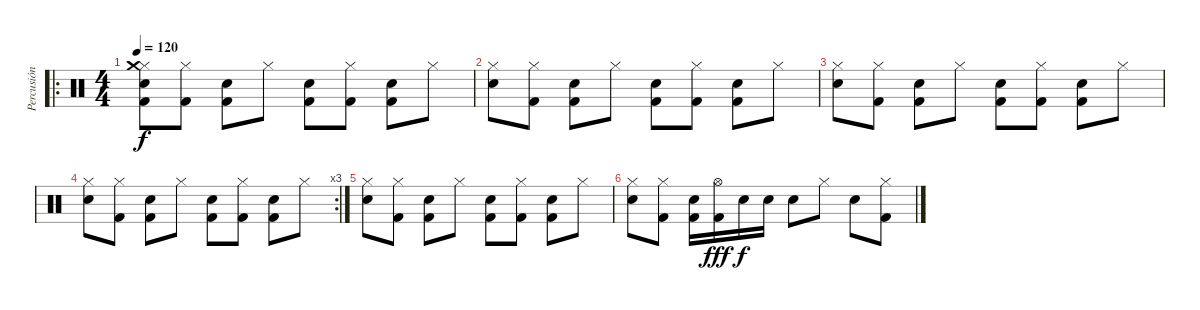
\track ("Percusión" "Percusión") {instrument percussion}
\staff {score}
\articulation defaults
\ro
\ts (4 4)
\tempo 120
\clef neutral
\ks c
("Electric Snare (hit)" "Hi-Hat (closed)" "Crash medium (hit)" "Kick (hit) 2").8{dy f} ("Hi-Hat (closed)" "Kick (hit) 2").8 ("Electric Snare (hit)" "Kick (hit) 2").8 "Hi-Hat (closed)".8 ("Electric Snare (hit)" "Kick (hit) 2").8 ("Hi-Hat (closed)" "Kick (hit) 2").8 ("Electric Snare (hit)" "Kick (hit) 2").8 "Hi-Hat (closed)".8 |
("Electric Snare (hit)" "Hi-Hat (closed)").8 ("Hi-Hat (closed)" "Kick (hit) 2").8 ("Electric Snare (hit)" "Kick (hit) 2").8 "Hi-Hat (closed)".8 ("Electric Snare (hit)" "Kick (hit) 2").8 ("Hi-Hat (closed)" "Kick (hit) 2").8 ("Electric Snare (hit)" "Kick (hit) 2").8 "Hi-Hat (closed)".8 |
("Electric Snare (hit)" "Hi-Hat (closed)").8 ("Hi-Hat (closed)" "Kick (hit) 2").8 ("Electric Snare (hit)" "Kick (hit) 2").8 "Hi-Hat (closed)".8 ("Electric Snare (hit)" "Kick (hit) 2").8 ("Hi-Hat (closed)" "Kick (hit) 2").8 ("Electric Snare (hit)" "Kick (hit) 2").8 "Hi-Hat (closed)".8 |
\rc 3
("Electric Snare (hit)" "Hi-Hat (closed)").8 ("Hi-Hat (closed)" "Kick (hit) 2").8 ("Electric Snare (hit)" "Kick (hit) 2").8 "Hi-Hat (closed)".8 ("Electric Snare (hit)" "Kick (hit) 2").8 ("Hi-Hat (closed)" "Kick (hit) 2").8 ("Electric Snare (hit)" "Kick (hit) 2").8 "Hi-Hat (closed)".8 |
("Electric Snare (hit)" "Hi-Hat (closed)").8 ("Hi-Hat (closed)" "Kick (hit) 2").8 ("Electric Snare (hit)" "Kick (hit) 2").8 "Hi-Hat (closed)".8 ("Electric Snare (hit)" "Kick (hit) 2").8 ("Hi-Hat (closed)" "Kick (hit) 2").8 ("Electric Snare (hit)" "Kick (hit) 2").8 "Hi-Hat (closed)".8 |
("Electric Snare (hit)" "Hi-Hat (closed)").8 ("Hi-Hat (closed)" "Kick (hit) 2").8 ("Electric Snare (hit)" "Kick (hit) 2").16 ("Hi-Hat (open)" "Kick (hit) 2").16{dy fff} "Electric Snare (hit)".16{dy f} "Electric Snare (hit)".16 "Electric Snare (hit)".8 "Hi-Hat (closed)".8 "Electric Snare (hit)".8 ("Hi-Hat (closed)" "Kick (hit) 2").8
